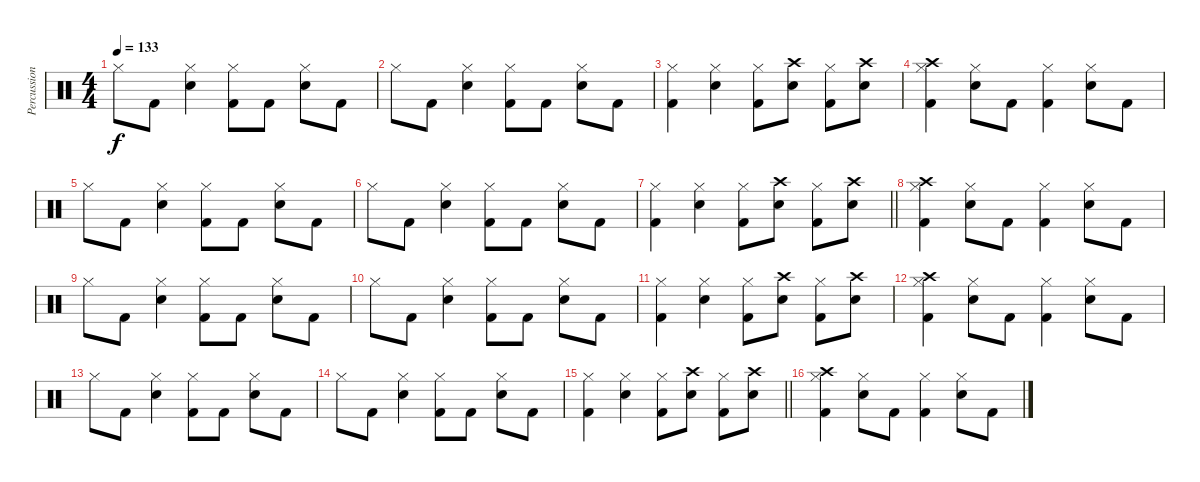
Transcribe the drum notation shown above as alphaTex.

\track ("Percussion" "Percussion") {instrument percussion}
\staff {score}
\articulation defaults
\ts (4 4)
\tempo 133
\clef neutral
\ks c "Hi-Hat (closed)".8{dy f} "Kick (hit) 2".8
("Hi-Hat (closed)" "Electric Snare (hit)").4 ("Hi-Hat (closed)" "Kick (hit) 2").8 "Kick (hit) 2".8 ("Hi-Hat (closed)" "Electric Snare (hit)").8 "Kick (hit) 2".8 |
"Hi-Hat (closed)".8 "Kick (hit) 2".8 ("Hi-Hat (closed)" "Electric Snare (hit)").4 ("Hi-Hat (closed)" "Kick (hit) 2").8 "Kick (hit) 2".8 ("Hi-Hat (closed)" "Electric Snare (hit)").8 "Kick (hit) 2".8 |
("Hi-Hat (closed)" "Kick (hit) 2").4 ("Hi-Hat (closed)" "Electric Snare (hit)").4 ("Hi-Hat (closed)" "Kick (hit) 2").8 ("Crash high (hit)" "Electric Snare (hit)").8 ("Hi-Hat (closed)" "Kick (hit) 2").8 ("Crash high (hit)" "Electric Snare (hit)").8 |
("Hi-Hat (closed)" "Crash high (hit)" "Kick (hit) 2").4 ("Hi-Hat (closed)" "Electric Snare (hit)").8 "Kick (hit) 2".8 ("Hi-Hat (closed)" "Kick (hit) 2").4 ("Hi-Hat (closed)" "Electric Snare (hit)").8 "Kick (hit) 2".8 |
"Hi-Hat (closed)".8 "Kick (hit) 2".8 ("Hi-Hat (closed)" "Electric Snare (hit)").4 ("Hi-Hat (closed)" "Kick (hit) 2").8 "Kick (hit) 2".8 ("Hi-Hat (closed)" "Electric Snare (hit)").8 "Kick (hit) 2".8 |
"Hi-Hat (closed)".8 "Kick (hit) 2".8 ("Hi-Hat (closed)" "Electric Snare (hit)").4 ("Hi-Hat (closed)" "Kick (hit) 2").8 "Kick (hit) 2".8 ("Hi-Hat (closed)" "Electric Snare (hit)").8 "Kick (hit) 2".8 |
\barLineRight lightlight
("Hi-Hat (closed)" "Kick (hit) 2").4 ("Hi-Hat (closed)" "Electric Snare (hit)").4 ("Hi-Hat (closed)" "Kick (hit) 2").8 ("Crash high (hit)" "Electric Snare (hit)").8 ("Hi-Hat (closed)" "Kick (hit) 2").8 ("Crash high (hit)" "Electric Snare (hit)").8 |
("Hi-Hat (closed)" "Crash high (hit)" "Kick (hit) 2").4 ("Hi-Hat (closed)" "Electric Snare (hit)").8 "Kick (hit) 2".8 ("Hi-Hat (closed)" "Kick (hit) 2").4 ("Hi-Hat (closed)" "Electric Snare (hit)").8 "Kick (hit) 2".8 |
"Hi-Hat (closed)".8 "Kick (hit) 2".8 ("Hi-Hat (closed)" "Electric Snare (hit)").4 ("Hi-Hat (closed)" "Kick (hit) 2").8 "Kick (hit) 2".8 ("Hi-Hat (closed)" "Electric Snare (hit)").8 "Kick (hit) 2".8 |
"Hi-Hat (closed)".8 "Kick (hit) 2".8 ("Hi-Hat (closed)" "Electric Snare (hit)").4 ("Hi-Hat (closed)" "Kick (hit) 2").8 "Kick (hit) 2".8 ("Hi-Hat (closed)" "Electric Snare (hit)").8 "Kick (hit) 2".8 |
("Hi-Hat (closed)" "Kick (hit) 2").4 ("Hi-Hat (closed)" "Electric Snare (hit)").4 ("Hi-Hat (closed)" "Kick (hit) 2").8 ("Crash high (hit)" "Electric Snare (hit)").8 ("Hi-Hat (closed)" "Kick (hit) 2").8 ("Crash high (hit)" "Electric Snare (hit)").8 |
("Hi-Hat (closed)" "Crash high (hit)" "Kick (hit) 2").4 ("Hi-Hat (closed)" "Electric Snare (hit)").8 "Kick (hit) 2".8 ("Hi-Hat (closed)" "Kick (hit) 2").4 ("Hi-Hat (closed)" "Electric Snare (hit)").8 "Kick (hit) 2".8 |
"Hi-Hat (closed)".8 "Kick (hit) 2".8 ("Hi-Hat (closed)" "Electric Snare (hit)").4 ("Hi-Hat (closed)" "Kick (hit) 2").8 "Kick (hit) 2".8 ("Hi-Hat (closed)" "Electric Snare (hit)").8 "Kick (hit) 2".8 |
"Hi-Hat (closed)".8 "Kick (hit) 2".8 ("Hi-Hat (closed)" "Electric Snare (hit)").4 ("Hi-Hat (closed)" "Kick (hit) 2").8 "Kick (hit) 2".8 ("Hi-Hat (closed)" "Electric Snare (hit)").8 "Kick (hit) 2".8 |
\barLineRight lightlight
("Hi-Hat (closed)" "Kick (hit) 2").4 ("Hi-Hat (closed)" "Electric Snare (hit)").4 ("Hi-Hat (closed)" "Kick (hit) 2").8 ("Crash high (hit)" "Electric Snare (hit)").8 ("Hi-Hat (closed)" "Kick (hit) 2").8 ("Crash high (hit)" "Electric Snare (hit)").8 |
("Hi-Hat (closed)" "Crash high (hit)" "Kick (hit) 2").4 ("Hi-Hat (closed)" "Electric Snare (hit)").8 "Kick (hit) 2".8 ("Hi-Hat (closed)" "Kick (hit) 2").4 ("Hi-Hat (closed)" "Electric Snare (hit)").8 "Kick (hit) 2".8
